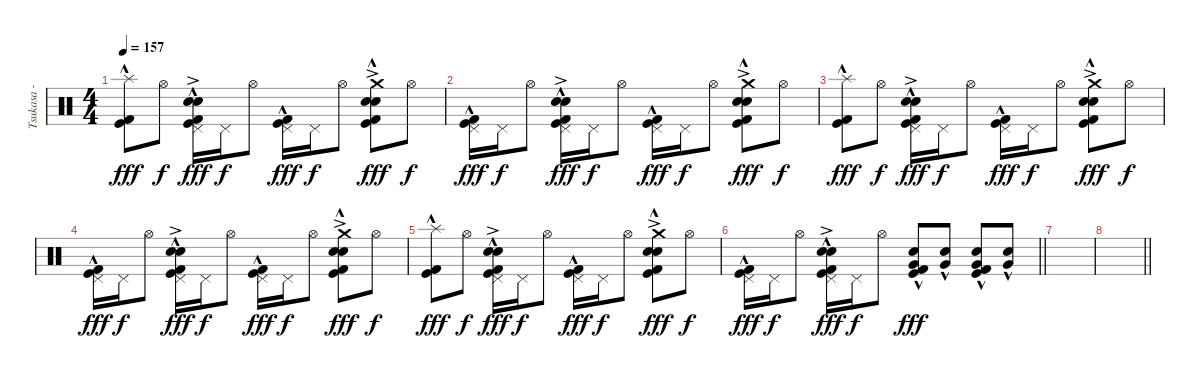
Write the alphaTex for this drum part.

\track ("Tsukasa - Drums" "Tsukasa - ") {instrument percussion}
\staff {score}
\articulation defaults
\ts (4 4)
\tempo 157
\clef neutral
\ks c
("Splash (hit)"{hac} "Kick (hit) 2"{hac} "Kick (hit)"{hac}).8{dy fff} "Hi-Hat (open)".8{dy f} ("Pedal Hi-Hat (hit)" "Electric Snare (hit)"{hac} "Snare (hit) 2"{ac} "Kick (hit) 2"{hac} "Kick (hit)"{hac}).16{dy fff} "Pedal Hi-Hat (hit)".16{dy f} "Hi-Hat (open)".8 ("Pedal Hi-Hat (hit)" "Kick (hit) 2"{hac} "Kick (hit)"{hac}).16{dy fff} "Pedal Hi-Hat (hit)".16{dy f} "Hi-Hat (open)".8 ("Crash medium (hit)"{ac} "Electric Snare (hit)"{hac} "Snare (hit) 2"{ac} "Kick (hit) 2"{hac} "Kick (hit)"{hac}).8{dy fff} "Hi-Hat (open)".8{dy f} |
("Pedal Hi-Hat (hit)" "Kick (hit) 2"{hac} "Kick (hit)"{hac}).16{dy fff} "Pedal Hi-Hat (hit)".16{dy f} "Hi-Hat (open)".8 ("Pedal Hi-Hat (hit)" "Electric Snare (hit)"{hac} "Snare (hit) 2"{ac} "Kick (hit) 2"{hac} "Kick (hit)"{hac}).16{dy fff} "Pedal Hi-Hat (hit)".16{dy f} "Hi-Hat (open)".8 ("Pedal Hi-Hat (hit)" "Kick (hit) 2"{hac} "Kick (hit)"{hac}).16{dy fff} "Pedal Hi-Hat (hit)".16{dy f} "Hi-Hat (open)".8 ("Crash medium (hit)"{ac} "Electric Snare (hit)"{hac} "Snare (hit) 2"{ac} "Kick (hit) 2"{hac} "Kick (hit)"{hac}).8{dy fff} "Hi-Hat (open)".8{dy f} |
("Splash (hit)"{hac} "Kick (hit) 2"{hac} "Kick (hit)"{hac}).8{dy fff} "Hi-Hat (open)".8{dy f} ("Pedal Hi-Hat (hit)" "Electric Snare (hit)"{hac} "Snare (hit) 2"{ac} "Kick (hit) 2"{hac} "Kick (hit)"{hac}).16{dy fff} "Pedal Hi-Hat (hit)".16{dy f} "Hi-Hat (open)".8 ("Pedal Hi-Hat (hit)" "Kick (hit) 2"{hac} "Kick (hit)"{hac}).16{dy fff} "Pedal Hi-Hat (hit)".16{dy f} "Hi-Hat (open)".8 ("Crash medium (hit)"{ac} "Electric Snare (hit)"{hac} "Snare (hit) 2"{ac} "Kick (hit) 2"{hac} "Kick (hit)"{hac}).8{dy fff} "Hi-Hat (open)".8{dy f} |
("Pedal Hi-Hat (hit)" "Kick (hit) 2"{hac} "Kick (hit)"{hac}).16{dy fff} "Pedal Hi-Hat (hit)".16{dy f} "Hi-Hat (open)".8 ("Pedal Hi-Hat (hit)" "Electric Snare (hit)"{hac} "Snare (hit) 2"{ac} "Kick (hit) 2"{hac} "Kick (hit)"{hac}).16{dy fff} "Pedal Hi-Hat (hit)".16{dy f} "Hi-Hat (open)".8 ("Pedal Hi-Hat (hit)" "Kick (hit) 2"{hac} "Kick (hit)"{hac}).16{dy fff} "Pedal Hi-Hat (hit)".16{dy f} "Hi-Hat (open)".8 ("Crash medium (hit)"{ac} "Electric Snare (hit)"{hac} "Snare (hit) 2"{ac} "Kick (hit) 2"{hac} "Kick (hit)"{hac}).8{dy fff} "Hi-Hat (open)".8{dy f} |
("Splash (hit)"{hac} "Kick (hit) 2"{hac} "Kick (hit)"{hac}).8{dy fff} "Hi-Hat (open)".8{dy f} ("Pedal Hi-Hat (hit)" "Electric Snare (hit)"{hac} "Snare (hit) 2"{ac} "Kick (hit) 2"{hac} "Kick (hit)"{hac}).16{dy fff} "Pedal Hi-Hat (hit)".16{dy f} "Hi-Hat (open)".8 ("Pedal Hi-Hat (hit)" "Kick (hit) 2"{hac} "Kick (hit)"{hac}).16{dy fff} "Pedal Hi-Hat (hit)".16{dy f} "Hi-Hat (open)".8 ("Crash medium (hit)"{ac} "Electric Snare (hit)"{hac} "Snare (hit) 2"{ac} "Kick (hit) 2"{hac} "Kick (hit)"{hac}).8{dy fff} "Hi-Hat (open)".8{dy f} |
\barLineRight lightlight
("Pedal Hi-Hat (hit)" "Kick (hit) 2"{hac} "Kick (hit)"{hac}).16{dy fff} "Pedal Hi-Hat (hit)".16{dy f} "Hi-Hat (open)".8 ("Pedal Hi-Hat (hit)" "Electric Snare (hit)"{hac} "Snare (hit) 2"{ac} "Kick (hit) 2"{hac} "Kick (hit)"{hac}).16{dy fff} "Pedal Hi-Hat (hit)".16{dy f} "Hi-Hat (open)".8 ("Electric Snare (hit)"{hac} "Very Low Tom (hit)"{hac} "Kick (hit) 2"{hac} "Kick (hit)"{hac}).8{dy fff} ("Electric Snare (hit)"{hac} "Very Low Tom (hit)"{hac}).8 ("Electric Snare (hit)"{hac} "Very Low Tom (hit)"{hac} "Kick (hit) 2"{hac} "Kick (hit)"{hac}).8 ("Electric Snare (hit)"{hac} "Very Low Tom (hit)"{hac}).8 |
|
\barLineRight lightlight
